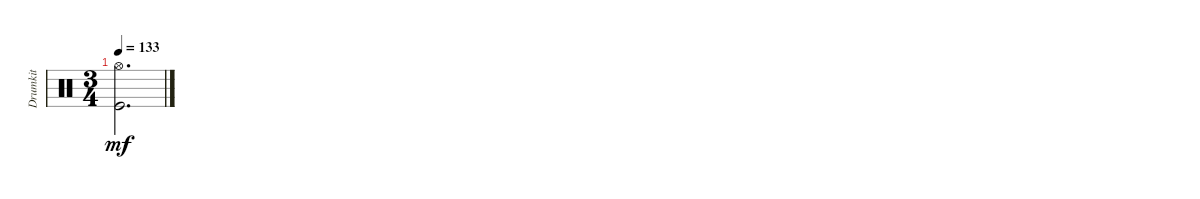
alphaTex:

\track ("Drumkit" "Drumkit") {instrument percussion}
\staff {score}
\articulation defaults
\ts (3 4)
\tempo 133
\clef neutral
\ks c
("Hi-Hat (open)" "Kick (hit)").2{d dy mf}
